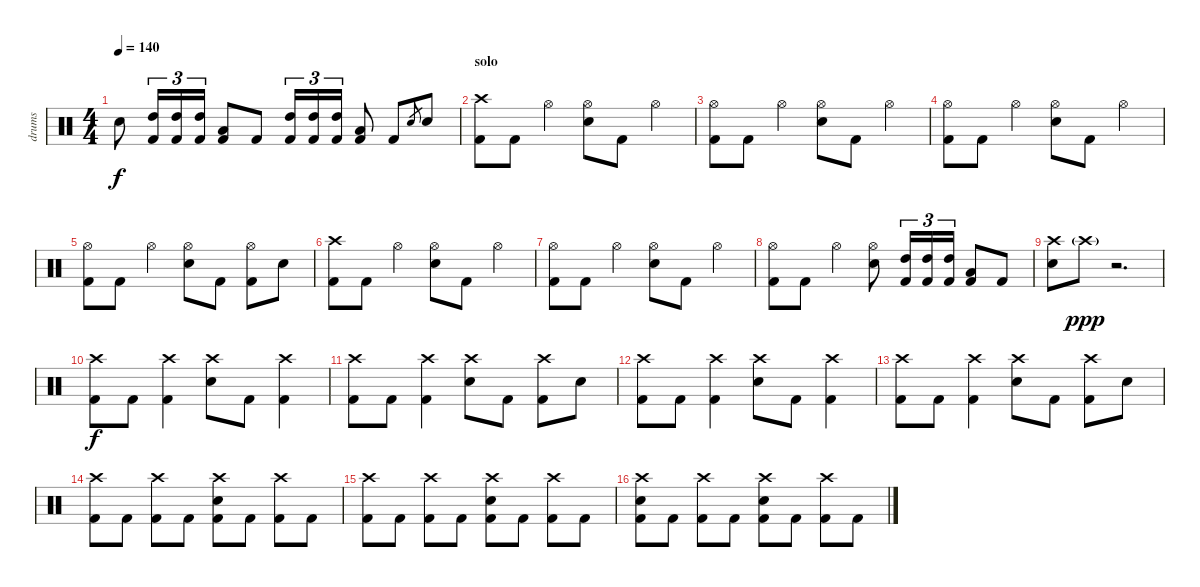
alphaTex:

\track ("drums" "drums") {instrument percussion}
\staff {score}
\articulation defaults
\ts (4 4)
\tempo 140
\clef neutral
\ks c "Electric Snare (hit)".8{dy f}
("High Tom (hit)" "Kick (hit) 2").16{tu (3 2)} ("High Tom (hit)" "Kick (hit) 2").16{tu (3 2)} ("High Tom (hit)" "Kick (hit) 2").16{tu (3 2)} ("Low Tom (hit)" "Kick (hit) 2").8 "Kick (hit) 2".8 ("High Tom (hit)" "Kick (hit) 2").16{tu (3 2)} ("High Tom (hit)" "Kick (hit) 2").16{tu (3 2)} ("High Tom (hit)" "Kick (hit) 2").16{tu (3 2)} ("Low Tom (hit)" "Kick (hit) 2").8 "Kick (hit) 2".8 "Electric Snare (hit)".8{gr} "Electric Snare (hit)".8 |
\section ("" "solo")
("Crash high (hit)" "Kick (hit) 2").8 "Kick (hit) 2".8 "Hi-Hat (open)".4 ("Hi-Hat (open)" "Electric Snare (hit)").8 "Kick (hit) 2".8 "Hi-Hat (open)".4 |
("Hi-Hat (open)" "Kick (hit) 2").8 "Kick (hit) 2".8 "Hi-Hat (open)".4 ("Hi-Hat (open)" "Electric Snare (hit)").8 "Kick (hit) 2".8 "Hi-Hat (open)".4 |
("Hi-Hat (open)" "Kick (hit) 2").8 "Kick (hit) 2".8 "Hi-Hat (open)".4 ("Hi-Hat (open)" "Electric Snare (hit)").8 "Kick (hit) 2".8 "Hi-Hat (open)".4 |
("Hi-Hat (open)" "Kick (hit) 2").8 "Kick (hit) 2".8 "Hi-Hat (open)".4 ("Hi-Hat (open)" "Electric Snare (hit)").8 "Kick (hit) 2".8 ("Hi-Hat (open)" "Kick (hit) 2").8 "Electric Snare (hit)".8 |
("Crash high (hit)" "Kick (hit) 2").8 "Kick (hit) 2".8 "Hi-Hat (open)".4 ("Hi-Hat (open)" "Electric Snare (hit)").8 "Kick (hit) 2".8 "Hi-Hat (open)".4 |
("Hi-Hat (open)" "Kick (hit) 2").8 "Kick (hit) 2".8 "Hi-Hat (open)".4 ("Hi-Hat (open)" "Electric Snare (hit)").8 "Kick (hit) 2".8 "Hi-Hat (open)".4 |
("Hi-Hat (open)" "Kick (hit) 2").8 "Kick (hit) 2".8 "Hi-Hat (open)".4 ("Hi-Hat (open)" "Electric Snare (hit)").8 ("High Tom (hit)" "Kick (hit) 2").16{tu (3 2)} ("High Tom (hit)" "Kick (hit) 2").16{tu (3 2)} ("High Tom (hit)" "Kick (hit) 2").16{tu (3 2)} ("Low Tom (hit)" "Kick (hit) 2").8 "Kick (hit) 2".8 |
("Crash high (hit)" "Electric Snare (hit)").8 "Crash high (hit)"{g}.8{dy ppp} r.2{d} |
("Crash high (hit)" "Kick (hit) 2").8{dy f} "Kick (hit) 2".8 ("Crash high (hit)" "Kick (hit) 2").4 ("Crash high (hit)" "Electric Snare (hit)").8 "Kick (hit) 2".8 ("Crash high (hit)" "Kick (hit) 2").4 |
("Crash high (hit)" "Kick (hit) 2").8 "Kick (hit) 2".8 ("Crash high (hit)" "Kick (hit) 2").4 ("Crash high (hit)" "Electric Snare (hit)").8 "Kick (hit) 2".8 ("Crash high (hit)" "Kick (hit) 2").8 "Electric Snare (hit)".8 |
("Crash high (hit)" "Kick (hit) 2").8 "Kick (hit) 2".8 ("Crash high (hit)" "Kick (hit) 2").4 ("Crash high (hit)" "Electric Snare (hit)").8 "Kick (hit) 2".8 ("Crash high (hit)" "Kick (hit) 2").4 |
("Crash high (hit)" "Kick (hit) 2").8 "Kick (hit) 2".8 ("Crash high (hit)" "Kick (hit) 2").4 ("Crash high (hit)" "Electric Snare (hit)").8 "Kick (hit) 2".8 ("Crash high (hit)" "Kick (hit) 2").8 "Electric Snare (hit)".8 |
("Crash high (hit)" "Kick (hit) 2").8 "Kick (hit) 2".8 ("Crash high (hit)" "Kick (hit) 2").8 "Kick (hit) 2".8 ("Crash high (hit)" "Electric Snare (hit)" "Kick (hit) 2").8 "Kick (hit) 2".8 ("Crash high (hit)" "Kick (hit) 2").8 "Kick (hit) 2".8 |
("Crash high (hit)" "Kick (hit) 2").8 "Kick (hit) 2".8 ("Crash high (hit)" "Kick (hit) 2").8 "Kick (hit) 2".8 ("Crash high (hit)" "Electric Snare (hit)" "Kick (hit) 2").8 "Kick (hit) 2".8 ("Crash high (hit)" "Kick (hit) 2").8 "Kick (hit) 2".8 |
("Crash high (hit)" "Electric Snare (hit)" "Kick (hit) 2").8 "Kick (hit) 2".8 ("Crash high (hit)" "Kick (hit) 2").8 "Kick (hit) 2".8 ("Crash high (hit)" "Electric Snare (hit)" "Kick (hit) 2").8 "Kick (hit) 2".8 ("Crash high (hit)" "Kick (hit) 2").8 "Kick (hit) 2".8
